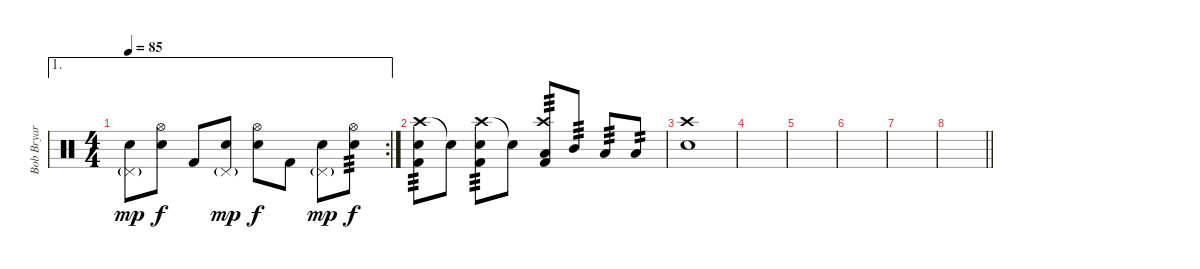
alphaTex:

\track ("Bob Bryar (Drums)" "Bob Bryar ") {instrument percussion}
\staff {score}
\articulation defaults
\ae 1
\rc 2
\ts (4 4)
\tempo 85
\clef neutral
\ks c
("Pedal Hi-Hat (hit)"{g} "Electric Snare (hit)").8{dy mp} ("Hi-Hat (open)" "Electric Snare (hit)").8{dy f} "Kick (hit) 2".8 ("Pedal Hi-Hat (hit)"{g} "Electric Snare (hit)").8{dy mp} ("Hi-Hat (open)" "Electric Snare (hit)").8{dy f} "Kick (hit) 2".8 ("Pedal Hi-Hat (hit)"{g} "Electric Snare (hit)").8{dy mp} ("Hi-Hat (open)" "Electric Snare (hit)").8{tp 3 dy f} |
("Crash high (hit)" "Electric Snare (hit)" "Kick (hit) 2").8{tp 3} "Snare (hit)"{t}.8 ("Crash high (hit)" "Electric Snare (hit)" "Kick (hit) 2").8{tp 3} "Snare (hit)"{t}.8 ("Crash high (hit)" "Low Tom (hit)" "Kick (hit) 2").8{tp 3} "Mid Tom (hit)".8{tp 3} "Low Floor Tom (hit)".8{tp 3} "Low Floor Tom (hit)".8{tp 2} |
("Crash high (hit)" "Electric Snare (hit)").1 |
|
|
|
|
\barLineRight lightlight
